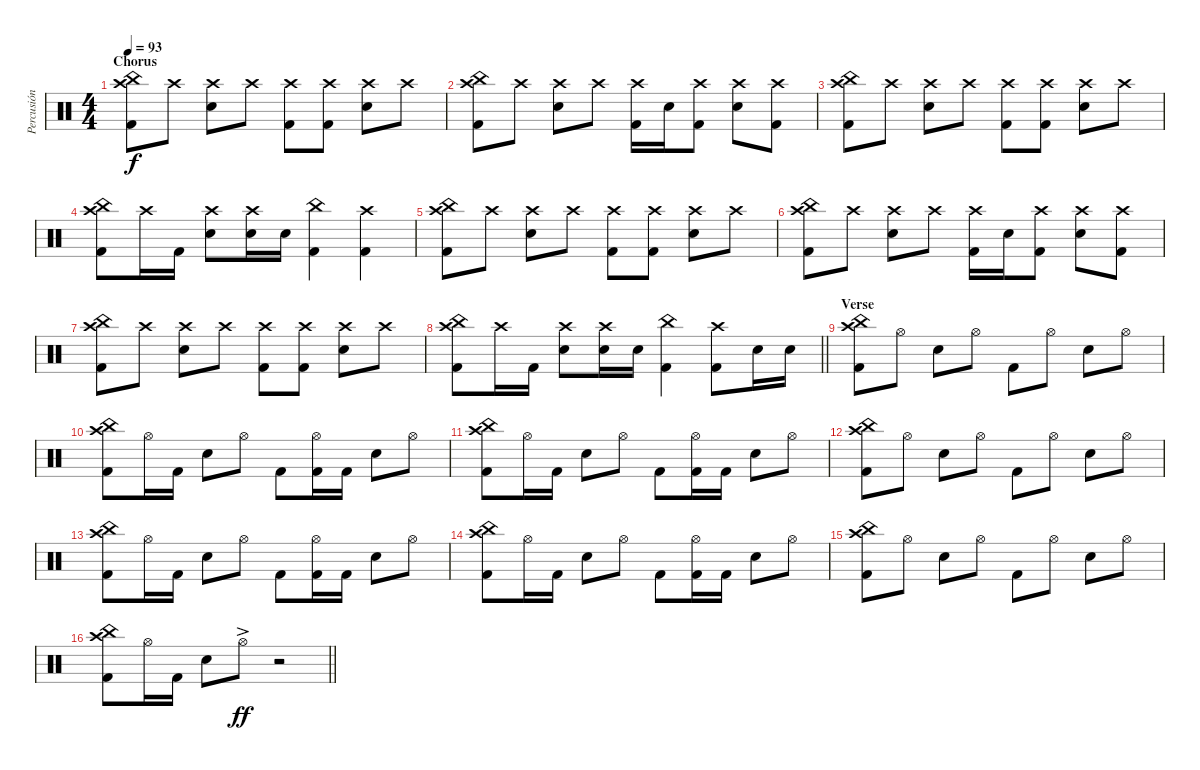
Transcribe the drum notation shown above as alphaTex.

\track ("Percusión" "Percusión") {instrument percussion}
\staff {score}
\articulation defaults
\ts (4 4)
\section ("" "Chorus")
\tempo 93
\clef neutral
\ks c
("China (hit)" "Kick (hit) 2" "Crash high (hit)").8{dy f} "Crash high (hit)".8 ("Snare (hit) 2" "Crash high (hit)").8 "Crash high (hit)".8 ("Kick (hit) 2" "Crash high (hit)").8 ("Kick (hit) 2" "Crash high (hit)").8 ("Snare (hit) 2" "Crash high (hit)").8 "Crash high (hit)".8 |
("China (hit)" "Kick (hit) 2" "Crash high (hit)").8 "Crash high (hit)".8 ("Snare (hit) 2" "Crash high (hit)").8 "Crash high (hit)".8 ("Kick (hit) 2" "Crash high (hit)").16 "Snare (hit) 2".16 ("Kick (hit) 2" "Crash high (hit)").8 ("Snare (hit) 2" "Crash high (hit)").8 ("Kick (hit) 2" "Crash high (hit)").8 |
("China (hit)" "Kick (hit) 2" "Crash high (hit)").8 "Crash high (hit)".8 ("Snare (hit) 2" "Crash high (hit)").8 "Crash high (hit)".8 ("Kick (hit) 2" "Crash high (hit)").8 ("Kick (hit) 2" "Crash high (hit)").8 ("Snare (hit) 2" "Crash high (hit)").8 "Crash high (hit)".8 |
("China (hit)" "Kick (hit) 2" "Crash high (hit)").8 "Crash high (hit)".16 "Kick (hit) 2".16 ("Snare (hit) 2" "Crash high (hit)").8 ("Snare (hit) 2" "Crash high (hit)").16 "Snare (hit) 2".16 ("China (hit)" "Kick (hit) 2").4 ("Kick (hit) 2" "Crash high (hit)").4 |
("China (hit)" "Kick (hit) 2" "Crash high (hit)").8 "Crash high (hit)".8 ("Snare (hit) 2" "Crash high (hit)").8 "Crash high (hit)".8 ("Kick (hit) 2" "Crash high (hit)").8 ("Kick (hit) 2" "Crash high (hit)").8 ("Snare (hit) 2" "Crash high (hit)").8 "Crash high (hit)".8 |
("China (hit)" "Kick (hit) 2" "Crash high (hit)").8 "Crash high (hit)".8 ("Snare (hit) 2" "Crash high (hit)").8 "Crash high (hit)".8 ("Kick (hit) 2" "Crash high (hit)").16 "Snare (hit) 2".16 ("Kick (hit) 2" "Crash high (hit)").8 ("Snare (hit) 2" "Crash high (hit)").8 ("Kick (hit) 2" "Crash high (hit)").8 |
("China (hit)" "Kick (hit) 2" "Crash high (hit)").8 "Crash high (hit)".8 ("Snare (hit) 2" "Crash high (hit)").8 "Crash high (hit)".8 ("Kick (hit) 2" "Crash high (hit)").8 ("Kick (hit) 2" "Crash high (hit)").8 ("Snare (hit) 2" "Crash high (hit)").8 "Crash high (hit)".8 |
\barLineRight lightlight
("China (hit)" "Kick (hit) 2" "Crash high (hit)").8 "Crash high (hit)".16 "Kick (hit) 2".16 ("Snare (hit) 2" "Crash high (hit)").8 ("Snare (hit) 2" "Crash high (hit)").16 "Snare (hit) 2".16 ("China (hit)" "Kick (hit) 2").4 ("Kick (hit) 2" "Crash high (hit)").8 "Snare (hit) 2".16 "Snare (hit) 2".16 |
\section ("" "Verse")
("China (hit)" "Kick (hit) 2" "Crash high (hit)").8 "Hi-Hat (open)".8 "Snare (hit) 2".8 "Hi-Hat (open)".8 "Kick (hit) 2".8 "Hi-Hat (open)".8 "Snare (hit) 2".8 "Hi-Hat (open)".8 |
("China (hit)" "Kick (hit) 2" "Crash high (hit)").8 "Hi-Hat (open)".16 "Kick (hit) 2".16 "Snare (hit) 2".8 "Hi-Hat (open)".8 "Kick (hit) 2".8 ("Hi-Hat (open)" "Kick (hit) 2").16 "Kick (hit) 2".16 "Snare (hit) 2".8 "Hi-Hat (open)".8 |
("China (hit)" "Kick (hit) 2" "Crash high (hit)").8 "Hi-Hat (open)".16 "Kick (hit) 2".16 "Snare (hit) 2".8 "Hi-Hat (open)".8 "Kick (hit) 2".8 ("Hi-Hat (open)" "Kick (hit) 2").16 "Kick (hit) 2".16 "Snare (hit) 2".8 "Hi-Hat (open)".8 |
("China (hit)" "Kick (hit) 2" "Crash high (hit)").8 "Hi-Hat (open)".8 "Snare (hit) 2".8 "Hi-Hat (open)".8 "Kick (hit) 2".8 "Hi-Hat (open)".8 "Snare (hit) 2".8 "Hi-Hat (open)".8 |
("China (hit)" "Kick (hit) 2" "Crash high (hit)").8 "Hi-Hat (open)".16 "Kick (hit) 2".16 "Snare (hit) 2".8 "Hi-Hat (open)".8 "Kick (hit) 2".8 ("Hi-Hat (open)" "Kick (hit) 2").16 "Kick (hit) 2".16 "Snare (hit) 2".8 "Hi-Hat (open)".8 |
("China (hit)" "Kick (hit) 2" "Crash high (hit)").8 "Hi-Hat (open)".16 "Kick (hit) 2".16 "Snare (hit) 2".8 "Hi-Hat (open)".8 "Kick (hit) 2".8 ("Hi-Hat (open)" "Kick (hit) 2").16 "Kick (hit) 2".16 "Snare (hit) 2".8 "Hi-Hat (open)".8 |
("China (hit)" "Kick (hit) 2" "Crash high (hit)").8 "Hi-Hat (open)".8 "Snare (hit) 2".8 "Hi-Hat (open)".8 "Kick (hit) 2".8 "Hi-Hat (open)".8 "Snare (hit) 2".8 "Hi-Hat (open)".8 |
\barLineRight lightlight
("China (hit)" "Kick (hit) 2" "Crash high (hit)").8 "Hi-Hat (open)".16 "Kick (hit) 2".16 "Snare (hit) 2".8 "Hi-Hat (open)"{ac}.8{dy ff} r.2
